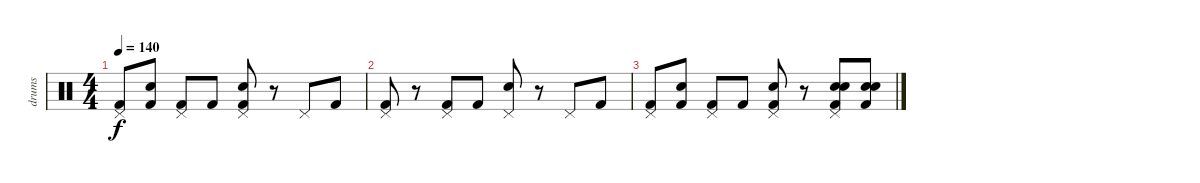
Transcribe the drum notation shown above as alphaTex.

\track ("drums" "drums") {instrument percussion}
\staff {score}
\articulation defaults
\ts (4 4)
\tempo 140
\clef neutral
\ks c
("Kick (hit) 2" "Pedal Hi-Hat (hit)").8{dy f} ("Snare (hit) 2" "Kick (hit) 2").8 ("Kick (hit) 2" "Pedal Hi-Hat (hit)").8 "Kick (hit) 2".8 ("Snare (hit) 2" "Kick (hit) 2" "Pedal Hi-Hat (hit)").8 r.8 "Pedal Hi-Hat (hit)".8 "Kick (hit) 2".8 |
("Pedal Hi-Hat (hit)" "Kick (hit) 2").8 r.8 ("Pedal Hi-Hat (hit)" "Kick (hit) 2").8 "Kick (hit) 2".8 ("Pedal Hi-Hat (hit)" "Snare (hit) 2").8 r.8 "Pedal Hi-Hat (hit)".8 "Kick (hit) 2".8 |
("Kick (hit) 2" "Pedal Hi-Hat (hit)").8 ("Snare (hit) 2" "Kick (hit) 2").8 ("Kick (hit) 2" "Pedal Hi-Hat (hit)").8 "Kick (hit) 2".8 ("Snare (hit) 2" "Kick (hit) 2" "Pedal Hi-Hat (hit)").8 r.8 ("Kick (hit) 2" "Snare (hit) 2" "Snare (hit) 2" "Pedal Hi-Hat (hit)").8 ("Kick (hit) 2" "Snare (hit) 2" "Snare (hit) 2").8
